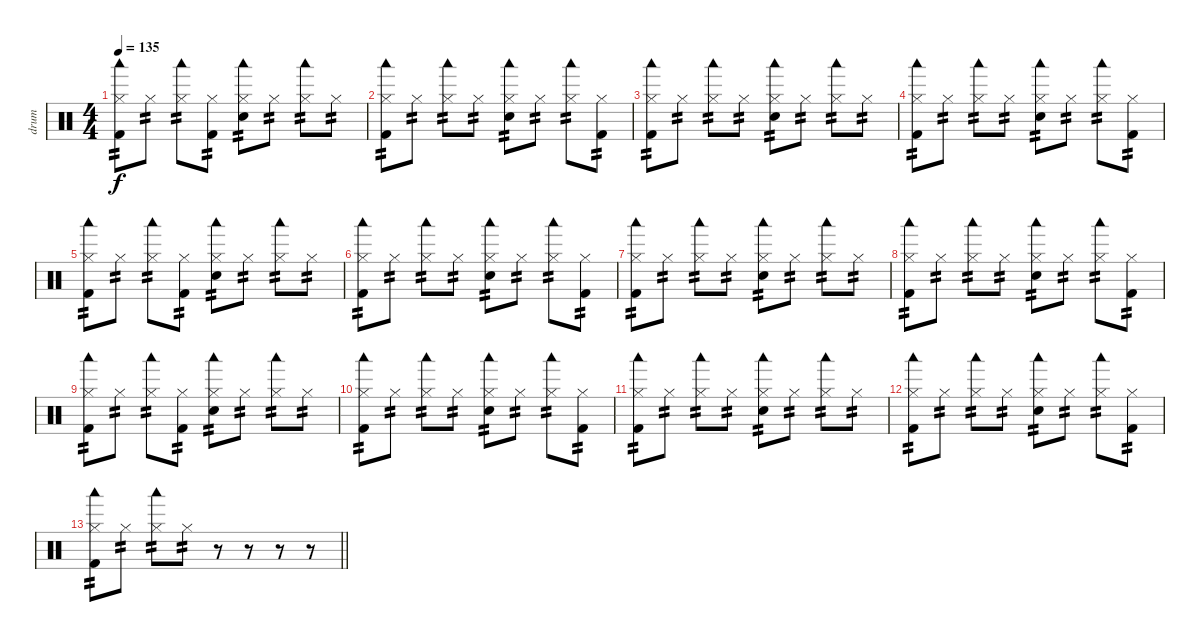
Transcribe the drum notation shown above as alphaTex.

\track ("drum" "drum") {instrument percussion}
\staff {score}
\articulation defaults
\ts (4 4)
\tempo 135
\clef neutral
\ks c
("Hi-Hat (closed)" "Woodblock low (hit)" "Kick (hit) 2").8{tp 2 dy f} "Hi-Hat (closed)".8{tp 2} ("Hi-Hat (closed)" "Woodblock low (hit)").8{tp 2} ("Hi-Hat (closed)" "Kick (hit) 2").8{tp 2} ("Hi-Hat (closed)" "Woodblock low (hit)" "Snare (hit) 2").8{tp 2} "Hi-Hat (closed)".8{tp 2} ("Hi-Hat (closed)" "Woodblock low (hit)").8{tp 2} "Hi-Hat (closed)".8{tp 2} |
("Hi-Hat (closed)" "Woodblock low (hit)" "Kick (hit) 2").8{tp 2} "Hi-Hat (closed)".8{tp 2} ("Hi-Hat (closed)" "Woodblock low (hit)").8{tp 2} "Hi-Hat (closed)".8{tp 2} ("Hi-Hat (closed)" "Woodblock low (hit)" "Snare (hit) 2").8{tp 2} "Hi-Hat (closed)".8{tp 2} ("Hi-Hat (closed)" "Woodblock low (hit)").8{tp 2} ("Hi-Hat (closed)" "Kick (hit) 2").8{tp 2} |
("Hi-Hat (closed)" "Woodblock low (hit)" "Kick (hit) 2").8{tp 2} "Hi-Hat (closed)".8{tp 2} ("Hi-Hat (closed)" "Woodblock low (hit)").8{tp 2} "Hi-Hat (closed)".8{tp 2} ("Hi-Hat (closed)" "Woodblock low (hit)" "Snare (hit) 2").8{tp 2} "Hi-Hat (closed)".8{tp 2} ("Hi-Hat (closed)" "Woodblock low (hit)").8{tp 2} "Hi-Hat (closed)".8{tp 2} |
("Hi-Hat (closed)" "Woodblock low (hit)" "Kick (hit) 2").8{tp 2} "Hi-Hat (closed)".8{tp 2} ("Hi-Hat (closed)" "Woodblock low (hit)").8{tp 2} "Hi-Hat (closed)".8{tp 2} ("Hi-Hat (closed)" "Woodblock low (hit)" "Snare (hit) 2").8{tp 2} "Hi-Hat (closed)".8{tp 2} ("Hi-Hat (closed)" "Woodblock low (hit)").8{tp 2} ("Hi-Hat (closed)" "Kick (hit) 2").8{tp 2} |
("Hi-Hat (closed)" "Woodblock low (hit)" "Kick (hit) 2").8{tp 2} "Hi-Hat (closed)".8{tp 2} ("Hi-Hat (closed)" "Woodblock low (hit)").8{tp 2} ("Hi-Hat (closed)" "Kick (hit) 2").8{tp 2} ("Hi-Hat (closed)" "Woodblock low (hit)" "Snare (hit) 2").8{tp 2} "Hi-Hat (closed)".8{tp 2} ("Hi-Hat (closed)" "Woodblock low (hit)").8{tp 2} "Hi-Hat (closed)".8{tp 2} |
("Hi-Hat (closed)" "Woodblock low (hit)" "Kick (hit) 2").8{tp 2} "Hi-Hat (closed)".8{tp 2} ("Hi-Hat (closed)" "Woodblock low (hit)").8{tp 2} "Hi-Hat (closed)".8{tp 2} ("Hi-Hat (closed)" "Woodblock low (hit)" "Snare (hit) 2").8{tp 2} "Hi-Hat (closed)".8{tp 2} ("Hi-Hat (closed)" "Woodblock low (hit)").8{tp 2} ("Hi-Hat (closed)" "Kick (hit) 2").8{tp 2} |
("Hi-Hat (closed)" "Woodblock low (hit)" "Kick (hit) 2").8{tp 2} "Hi-Hat (closed)".8{tp 2} ("Hi-Hat (closed)" "Woodblock low (hit)").8{tp 2} "Hi-Hat (closed)".8{tp 2} ("Hi-Hat (closed)" "Woodblock low (hit)" "Snare (hit) 2").8{tp 2} "Hi-Hat (closed)".8{tp 2} ("Hi-Hat (closed)" "Woodblock low (hit)").8{tp 2} "Hi-Hat (closed)".8{tp 2} |
("Hi-Hat (closed)" "Woodblock low (hit)" "Kick (hit) 2").8{tp 2} "Hi-Hat (closed)".8{tp 2} ("Hi-Hat (closed)" "Woodblock low (hit)").8{tp 2} "Hi-Hat (closed)".8{tp 2} ("Hi-Hat (closed)" "Woodblock low (hit)" "Snare (hit) 2").8{tp 2} "Hi-Hat (closed)".8{tp 2} ("Hi-Hat (closed)" "Woodblock low (hit)").8{tp 2} ("Hi-Hat (closed)" "Kick (hit) 2").8{tp 2} |
("Hi-Hat (closed)" "Woodblock low (hit)" "Kick (hit) 2").8{tp 2} "Hi-Hat (closed)".8{tp 2} ("Hi-Hat (closed)" "Woodblock low (hit)").8{tp 2} ("Hi-Hat (closed)" "Kick (hit) 2").8{tp 2} ("Hi-Hat (closed)" "Woodblock low (hit)" "Snare (hit) 2").8{tp 2} "Hi-Hat (closed)".8{tp 2} ("Hi-Hat (closed)" "Woodblock low (hit)").8{tp 2} "Hi-Hat (closed)".8{tp 2} |
("Hi-Hat (closed)" "Woodblock low (hit)" "Kick (hit) 2").8{tp 2} "Hi-Hat (closed)".8{tp 2} ("Hi-Hat (closed)" "Woodblock low (hit)").8{tp 2} "Hi-Hat (closed)".8{tp 2} ("Hi-Hat (closed)" "Woodblock low (hit)" "Snare (hit) 2").8{tp 2} "Hi-Hat (closed)".8{tp 2} ("Hi-Hat (closed)" "Woodblock low (hit)").8{tp 2} ("Hi-Hat (closed)" "Kick (hit) 2").8{tp 2} |
("Hi-Hat (closed)" "Woodblock low (hit)" "Kick (hit) 2").8{tp 2} "Hi-Hat (closed)".8{tp 2} ("Hi-Hat (closed)" "Woodblock low (hit)").8{tp 2} "Hi-Hat (closed)".8{tp 2} ("Hi-Hat (closed)" "Woodblock low (hit)" "Snare (hit) 2").8{tp 2} "Hi-Hat (closed)".8{tp 2} ("Hi-Hat (closed)" "Woodblock low (hit)").8{tp 2} "Hi-Hat (closed)".8{tp 2} |
("Hi-Hat (closed)" "Woodblock low (hit)" "Kick (hit) 2").8{tp 2} "Hi-Hat (closed)".8{tp 2} ("Hi-Hat (closed)" "Woodblock low (hit)").8{tp 2} "Hi-Hat (closed)".8{tp 2} ("Hi-Hat (closed)" "Woodblock low (hit)" "Snare (hit) 2").8{tp 2} "Hi-Hat (closed)".8{tp 2} ("Hi-Hat (closed)" "Woodblock low (hit)").8{tp 2} ("Hi-Hat (closed)" "Kick (hit) 2").8{tp 2} |
\barLineRight lightlight
("Hi-Hat (closed)" "Woodblock low (hit)" "Kick (hit) 2").8{tp 2} "Hi-Hat (closed)".8{tp 2} ("Hi-Hat (closed)" "Woodblock low (hit)").8{tp 2} "Hi-Hat (closed)".8{tp 2} r.8 r.8 r.8 r.8
